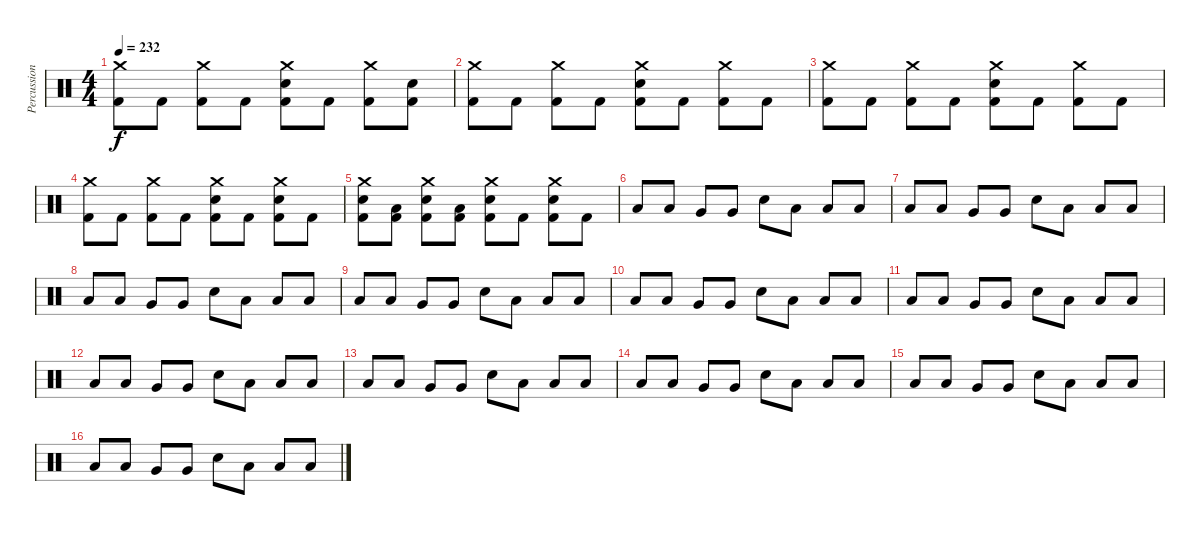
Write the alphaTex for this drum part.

\track ("Percussions" "Percussion") {instrument percussion}
\staff {score}
\articulation defaults
\ts (4 4)
\tempo 232
\clef neutral
\ks c
("Crash medium (hit)" "Kick (hit) 2").8{dy f} "Kick (hit) 2".8 ("Crash medium (hit)" "Kick (hit) 2").8 "Kick (hit) 2".8 ("Crash medium (hit)" "Electric Snare (hit)" "Kick (hit) 2").8 "Kick (hit) 2".8 ("Crash medium (hit)" "Kick (hit) 2").8 ("Electric Snare (hit)" "Kick (hit) 2").8 |
("Crash medium (hit)" "Kick (hit) 2").8 "Kick (hit) 2".8 ("Crash medium (hit)" "Kick (hit) 2").8 "Kick (hit) 2".8 ("Crash medium (hit)" "Electric Snare (hit)" "Kick (hit) 2").8 "Kick (hit) 2".8 ("Crash medium (hit)" "Kick (hit) 2").8 "Kick (hit) 2".8 |
("Crash medium (hit)" "Kick (hit) 2").8 "Kick (hit) 2".8 ("Crash medium (hit)" "Kick (hit) 2").8 "Kick (hit) 2".8 ("Crash medium (hit)" "Electric Snare (hit)" "Kick (hit) 2").8 "Kick (hit) 2".8 ("Crash medium (hit)" "Kick (hit) 2").8 "Kick (hit) 2".8 |
("Crash medium (hit)" "Kick (hit) 2").8 "Kick (hit) 2".8 ("Crash medium (hit)" "Kick (hit) 2").8 "Kick (hit) 2".8 ("Crash medium (hit)" "Electric Snare (hit)" "Kick (hit) 2").8 "Kick (hit) 2".8 ("Crash medium (hit)" "Electric Snare (hit)" "Kick (hit) 2").8 "Kick (hit) 2".8 |
("Crash medium (hit)" "Electric Snare (hit)" "Kick (hit) 2").8 ("Low Tom (hit)" "Kick (hit) 2").8 ("Crash medium (hit)" "Electric Snare (hit)" "Kick (hit) 2").8 ("Low Floor Tom (hit)" "Kick (hit) 2").8 ("Crash medium (hit)" "Electric Snare (hit)" "Kick (hit) 2").8 "Kick (hit) 2".8 ("Crash medium (hit)" "Electric Snare (hit)" "Kick (hit) 2").8 "Kick (hit) 2".8 |
"Low Tom (hit)".8 "Low Tom (hit)".8 "Very Low Tom (hit)".8 "Very Low Tom (hit)".8 "Electric Snare (hit)".8 "Low Floor Tom (hit)".8 "Low Floor Tom (hit)".8 "Low Floor Tom (hit)".8 |
"Low Tom (hit)".8 "Low Tom (hit)".8 "Very Low Tom (hit)".8 "Very Low Tom (hit)".8 "Electric Snare (hit)".8 "Low Floor Tom (hit)".8 "Low Floor Tom (hit)".8 "Low Floor Tom (hit)".8 |
"Low Tom (hit)".8 "Low Tom (hit)".8 "Very Low Tom (hit)".8 "Very Low Tom (hit)".8 "Electric Snare (hit)".8 "Low Floor Tom (hit)".8 "Low Floor Tom (hit)".8 "Low Floor Tom (hit)".8 |
"Low Tom (hit)".8 "Low Tom (hit)".8 "Very Low Tom (hit)".8 "Very Low Tom (hit)".8 "Electric Snare (hit)".8 "Low Floor Tom (hit)".8 "Low Floor Tom (hit)".8 "Low Floor Tom (hit)".8 |
"Low Tom (hit)".8 "Low Tom (hit)".8 "Very Low Tom (hit)".8 "Very Low Tom (hit)".8 "Electric Snare (hit)".8 "Low Floor Tom (hit)".8 "Low Floor Tom (hit)".8 "Low Floor Tom (hit)".8 |
"Low Tom (hit)".8 "Low Tom (hit)".8 "Very Low Tom (hit)".8 "Very Low Tom (hit)".8 "Electric Snare (hit)".8 "Low Floor Tom (hit)".8 "Low Floor Tom (hit)".8 "Low Floor Tom (hit)".8 |
"Low Tom (hit)".8 "Low Tom (hit)".8 "Very Low Tom (hit)".8 "Very Low Tom (hit)".8 "Electric Snare (hit)".8 "Low Floor Tom (hit)".8 "Low Floor Tom (hit)".8 "Low Floor Tom (hit)".8 |
"Low Tom (hit)".8 "Low Tom (hit)".8 "Very Low Tom (hit)".8 "Very Low Tom (hit)".8 "Electric Snare (hit)".8 "Low Floor Tom (hit)".8 "Low Floor Tom (hit)".8 "Low Floor Tom (hit)".8 |
"Low Tom (hit)".8 "Low Tom (hit)".8 "Very Low Tom (hit)".8 "Very Low Tom (hit)".8 "Electric Snare (hit)".8 "Low Floor Tom (hit)".8 "Low Floor Tom (hit)".8 "Low Floor Tom (hit)".8 |
"Low Tom (hit)".8 "Low Tom (hit)".8 "Very Low Tom (hit)".8 "Very Low Tom (hit)".8 "Electric Snare (hit)".8 "Low Floor Tom (hit)".8 "Low Floor Tom (hit)".8 "Low Floor Tom (hit)".8 |
"Low Tom (hit)".8 "Low Tom (hit)".8 "Very Low Tom (hit)".8 "Very Low Tom (hit)".8 "Electric Snare (hit)".8 "Low Floor Tom (hit)".8 "Low Floor Tom (hit)".8 "Low Floor Tom (hit)".8
